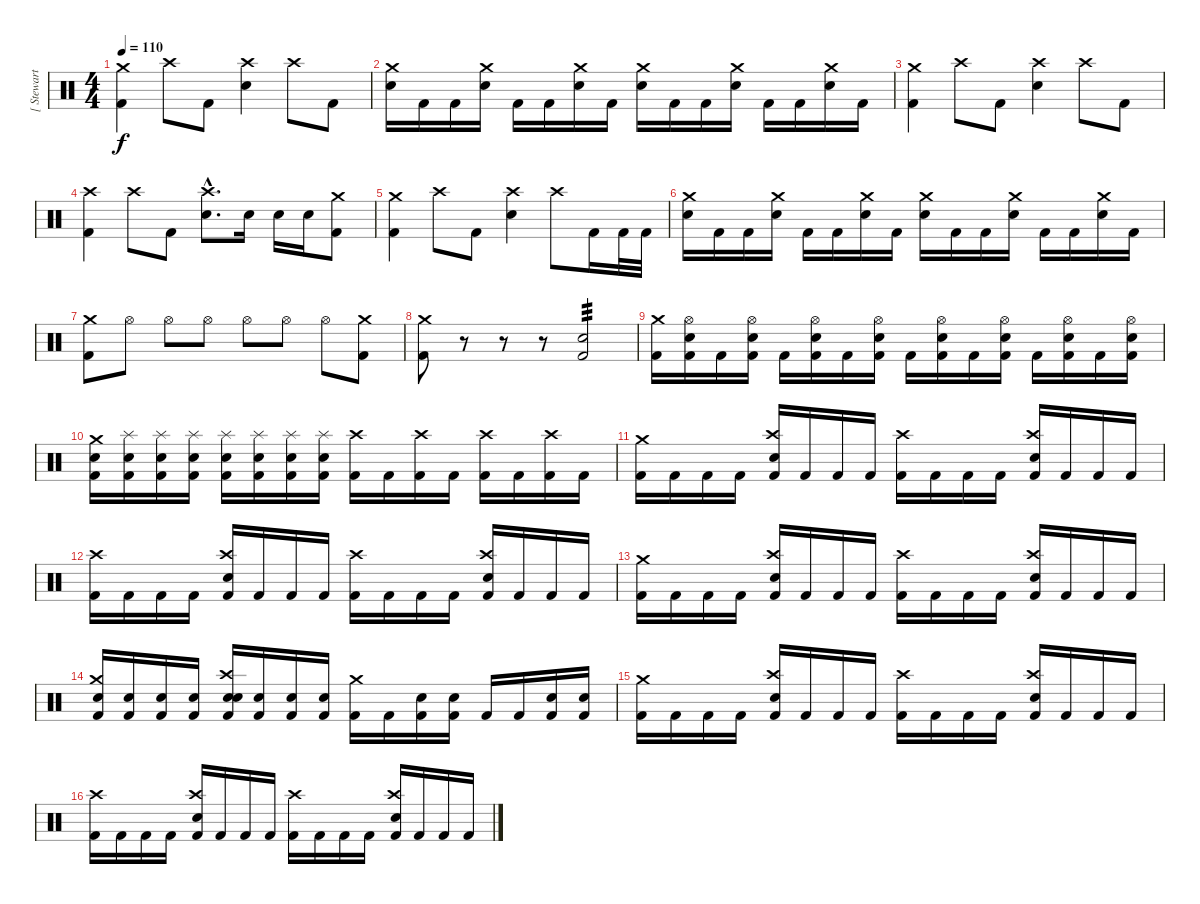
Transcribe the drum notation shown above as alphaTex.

\track ("[ Stewart ]" "[ Stewart ") {instrument percussion}
\staff {score}
\articulation defaults
\ts (4 4)
\tempo 110
\clef neutral
\ks c
("Kick (hit) 2" "Crash medium (hit)").4{dy f} "Crash high (hit)".8 "Kick (hit) 2".8 ("Electric Snare (hit)" "Crash high (hit)").4 "Crash high (hit)".8 "Kick (hit) 2".8 |
("Electric Snare (hit)" "Crash medium (hit)").16 "Kick (hit) 2".16 "Kick (hit) 2".16 ("Electric Snare (hit)" "Crash medium (hit)").16 "Kick (hit) 2".16 "Kick (hit) 2".16 ("Electric Snare (hit)" "Crash medium (hit)").16 "Kick (hit) 2".16 ("Electric Snare (hit)" "Crash medium (hit)").16 "Kick (hit) 2".16 "Kick (hit) 2".16 ("Electric Snare (hit)" "Crash medium (hit)").16 "Kick (hit) 2".16 "Kick (hit) 2".16 ("Electric Snare (hit)" "Crash medium (hit)").16 "Kick (hit) 2".16 |
("Kick (hit) 2" "Crash medium (hit)").4 "Crash high (hit)".8 "Kick (hit) 2".8 ("Electric Snare (hit)" "Crash high (hit)").4 "Crash high (hit)".8 "Kick (hit) 2".8 |
("Kick (hit) 2" "Crash high (hit)").4 "Crash high (hit)".8 "Kick (hit) 2".8 ("Electric Snare (hit)"{hac} "Crash high (hit)"{hac}).8{d} "Electric Snare (hit)".16 "Electric Snare (hit)".16 "Electric Snare (hit)".16 ("Kick (hit) 2" "Crash medium (hit)").8 |
("Kick (hit) 2" "Crash medium (hit)").4 "Crash high (hit)".8 "Kick (hit) 2".8 ("Electric Snare (hit)" "Crash high (hit)").4 "Crash high (hit)".8 "Kick (hit) 2".16 "Kick (hit) 2".32 "Kick (hit) 2".32 |
("Electric Snare (hit)" "Crash medium (hit)").16 "Kick (hit) 2".16 "Kick (hit) 2".16 ("Electric Snare (hit)" "Crash medium (hit)").16 "Kick (hit) 2".16 "Kick (hit) 2".16 ("Electric Snare (hit)" "Crash medium (hit)").16 "Kick (hit) 2".16 ("Electric Snare (hit)" "Crash medium (hit)").16 "Kick (hit) 2".16 "Kick (hit) 2".16 ("Electric Snare (hit)" "Crash medium (hit)").16 "Kick (hit) 2".16 "Kick (hit) 2".16 ("Electric Snare (hit)" "Crash medium (hit)").16 "Kick (hit) 2".16 |
("Kick (hit) 2" "Crash medium (hit)").8 "Hi-Hat (open)".8 "Hi-Hat (open)".8 "Hi-Hat (open)".8 "Hi-Hat (open)".8 "Hi-Hat (open)".8 "Hi-Hat (open)".8 ("Kick (hit) 2" "Crash medium (hit)").8 |
("Kick (hit) 2" "Crash medium (hit)").8 r.8 r.8 r.8 ("Kick (hit) 2" "Electric Snare (hit)").2{tp 3} |
("Kick (hit) 2" "Crash medium (hit)").16 ("Kick (hit) 2" "Electric Snare (hit)" "Hi-Hat (open)").16 "Kick (hit) 2".16 ("Kick (hit) 2" "Electric Snare (hit)" "Hi-Hat (open)").16 "Kick (hit) 2".16 ("Kick (hit) 2" "Electric Snare (hit)" "Hi-Hat (open)").16 "Kick (hit) 2".16 ("Kick (hit) 2" "Electric Snare (hit)" "Hi-Hat (open)").16 "Kick (hit) 2".16 ("Kick (hit) 2" "Electric Snare (hit)" "Hi-Hat (open)").16 "Kick (hit) 2".16 ("Kick (hit) 2" "Electric Snare (hit)" "Hi-Hat (open)").16 "Kick (hit) 2".16 ("Kick (hit) 2" "Electric Snare (hit)" "Hi-Hat (open)").16 "Kick (hit) 2".16 ("Kick (hit) 2" "Electric Snare (hit)" "Hi-Hat (open)").16 |
("Kick (hit) 2" "Electric Snare (hit)" "Crash medium (hit)").16 ("Kick (hit) 2" "Electric Snare (hit)" "Splash (hit)").16 ("Kick (hit) 2" "Electric Snare (hit)" "Splash (hit)").16 ("Kick (hit) 2" "Electric Snare (hit)" "Splash (hit)").16 ("Kick (hit) 2" "Electric Snare (hit)" "Splash (hit)").16 ("Kick (hit) 2" "Electric Snare (hit)" "Splash (hit)").16 ("Kick (hit) 2" "Electric Snare (hit)" "Splash (hit)").16 ("Kick (hit) 2" "Electric Snare (hit)" "Splash (hit)").16 ("Kick (hit) 2" "Crash high (hit)").16 "Kick (hit) 2".16 ("Kick (hit) 2" "Crash high (hit)").16 "Kick (hit) 2".16 ("Kick (hit) 2" "Crash high (hit)").16 "Kick (hit) 2".16 ("Kick (hit) 2" "Crash high (hit)").16 "Kick (hit) 2".16 |
("Kick (hit) 2" "Crash medium (hit)").16 "Kick (hit) 2".16 "Kick (hit) 2".16 "Kick (hit) 2".16 ("Kick (hit) 2" "Electric Snare (hit)" "Crash high (hit)").16 "Kick (hit) 2".16 "Kick (hit) 2".16 "Kick (hit) 2".16 ("Kick (hit) 2" "Crash high (hit)").16 "Kick (hit) 2".16 "Kick (hit) 2".16 "Kick (hit) 2".16 ("Kick (hit) 2" "Electric Snare (hit)" "Crash high (hit)").16 "Kick (hit) 2".16 "Kick (hit) 2".16 "Kick (hit) 2".16 |
("Kick (hit) 2" "Crash high (hit)").16 "Kick (hit) 2".16 "Kick (hit) 2".16 "Kick (hit) 2".16 ("Kick (hit) 2" "Electric Snare (hit)" "Crash high (hit)").16 "Kick (hit) 2".16 "Kick (hit) 2".16 "Kick (hit) 2".16 ("Kick (hit) 2" "Crash high (hit)").16 "Kick (hit) 2".16 "Kick (hit) 2".16 "Kick (hit) 2".16 ("Kick (hit) 2" "Electric Snare (hit)" "Crash high (hit)").16 "Kick (hit) 2".16 "Kick (hit) 2".16 "Kick (hit) 2".16 |
("Kick (hit) 2" "Crash medium (hit)").16 "Kick (hit) 2".16 "Kick (hit) 2".16 "Kick (hit) 2".16 ("Kick (hit) 2" "Electric Snare (hit)" "Crash high (hit)").16 "Kick (hit) 2".16 "Kick (hit) 2".16 "Kick (hit) 2".16 ("Kick (hit) 2" "Crash high (hit)").16 "Kick (hit) 2".16 "Kick (hit) 2".16 "Kick (hit) 2".16 ("Kick (hit) 2" "Electric Snare (hit)" "Crash high (hit)").16 "Kick (hit) 2".16 "Kick (hit) 2".16 "Kick (hit) 2".16 |
("Kick (hit) 2" "Electric Snare (hit)" "Crash medium (hit)").16 ("Kick (hit) 2" "Electric Snare (hit)").16 ("Kick (hit) 2" "Electric Snare (hit)").16 ("Kick (hit) 2" "Electric Snare (hit)").16 ("Kick (hit) 2" "Electric Snare (hit)" "Electric Snare (hit)" "Crash high (hit)").16 ("Kick (hit) 2" "Electric Snare (hit)").16 ("Kick (hit) 2" "Electric Snare (hit)").16 ("Kick (hit) 2" "Electric Snare (hit)").16 ("Kick (hit) 2" "Crash medium (hit)").16 "Kick (hit) 2".16 ("Kick (hit) 2" "Electric Snare (hit)").16 ("Kick (hit) 2" "Electric Snare (hit)").16 "Kick (hit) 2".16 "Kick (hit) 2".16 ("Kick (hit) 2" "Electric Snare (hit)").16 ("Kick (hit) 2" "Electric Snare (hit)").16 |
("Kick (hit) 2" "Crash medium (hit)").16 "Kick (hit) 2".16 "Kick (hit) 2".16 "Kick (hit) 2".16 ("Kick (hit) 2" "Electric Snare (hit)" "Crash high (hit)").16 "Kick (hit) 2".16 "Kick (hit) 2".16 "Kick (hit) 2".16 ("Kick (hit) 2" "Crash high (hit)").16 "Kick (hit) 2".16 "Kick (hit) 2".16 "Kick (hit) 2".16 ("Kick (hit) 2" "Electric Snare (hit)" "Crash high (hit)").16 "Kick (hit) 2".16 "Kick (hit) 2".16 "Kick (hit) 2".16 |
("Kick (hit) 2" "Crash high (hit)").16 "Kick (hit) 2".16 "Kick (hit) 2".16 "Kick (hit) 2".16 ("Kick (hit) 2" "Electric Snare (hit)" "Crash high (hit)").16 "Kick (hit) 2".16 "Kick (hit) 2".16 "Kick (hit) 2".16 ("Kick (hit) 2" "Crash high (hit)").16 "Kick (hit) 2".16 "Kick (hit) 2".16 "Kick (hit) 2".16 ("Kick (hit) 2" "Electric Snare (hit)" "Crash high (hit)").16 "Kick (hit) 2".16 "Kick (hit) 2".16 "Kick (hit) 2".16
